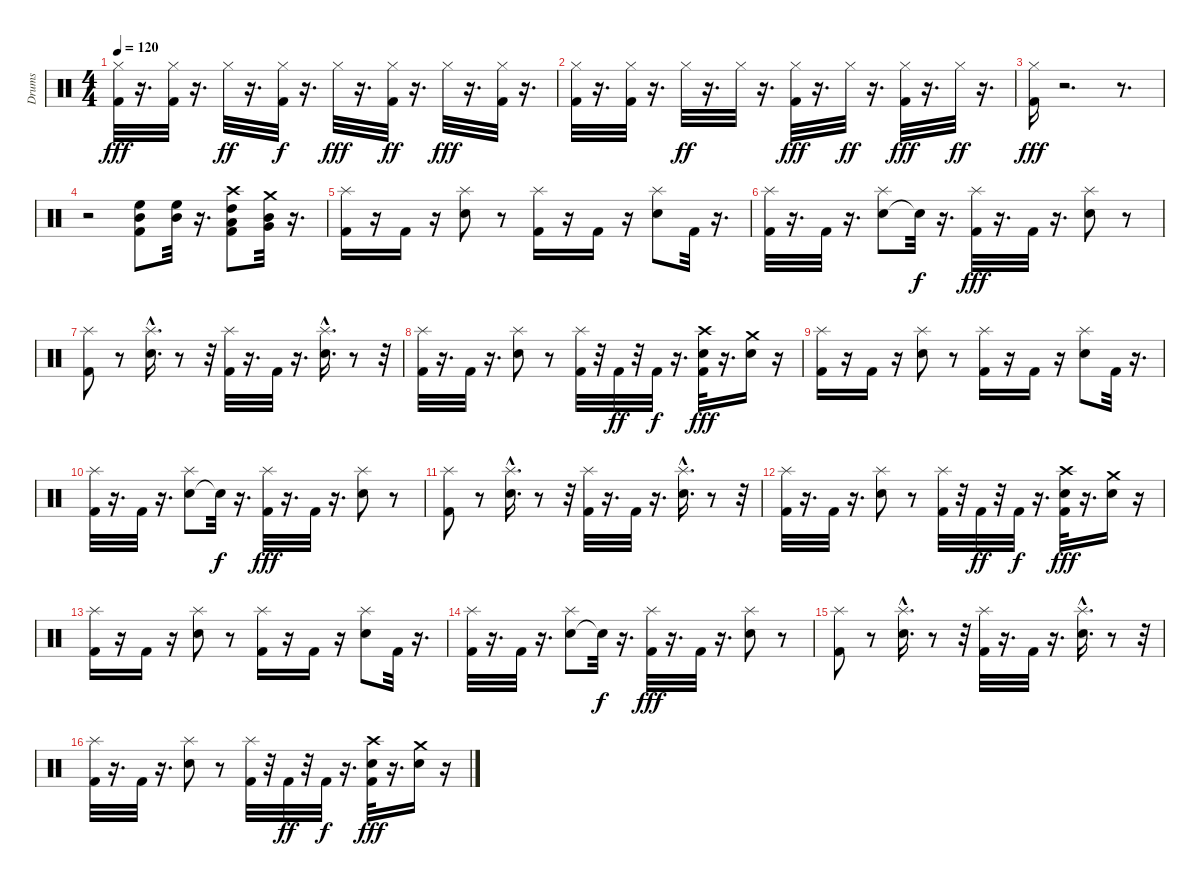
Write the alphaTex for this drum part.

\track ("Drums" "Drums") {instrument percussion}
\staff {score}
\articulation defaults
\ts (4 4)
\tempo 120
\clef neutral
\ks c
("Kick (hit) 2" "Hi-Hat (closed)").32{dy fff} r.16{d} ("Kick (hit) 2" "Hi-Hat (closed)").32 r.16{d} "Hi-Hat (closed)".32{dy ff} r.16{d} ("Kick (hit) 2" "Hi-Hat (closed)").32{dy f} r.16{d} "Hi-Hat (closed)".32{dy fff} r.16{d} ("Kick (hit) 2" "Hi-Hat (closed)").32{dy ff} r.16{d} "Hi-Hat (closed)".32{dy fff} r.16{d} ("Kick (hit) 2" "Hi-Hat (closed)").32 r.16{d} |
("Kick (hit) 2" "Hi-Hat (closed)").32 r.16{d} ("Kick (hit) 2" "Hi-Hat (closed)").32 r.16{d} "Hi-Hat (closed)".32{dy ff} r.16{d} "Hi-Hat (closed)".32 r.16{d} ("Kick (hit) 2" "Hi-Hat (closed)").32{dy fff} r.16{d} "Hi-Hat (closed)".32{dy ff} r.16{d} ("Kick (hit) 2" "Hi-Hat (closed)").32{dy fff} r.16{d} "Hi-Hat (closed)".32{dy ff} r.16{d} |
("Kick (hit) 2" "Hi-Hat (closed)").16{dy fff} r.2{d} r.8{d} |
r.2 ("Mid Tom (hit)" "High Floor Tom (hit)" "Kick (hit) 2").8 ("Mid Tom (hit)" "High Floor Tom (hit)").32 r.16{d} ("Low Tom (hit)" "High Tom (hit)" "Kick (hit) 2" "Crash high (hit)").8 ("Very Low Tom (hit)" "Mid Tom (hit)" "Crash medium (hit)").32 r.16{d} |
("Kick (hit) 2" "Splash (hit)").16 r.16 "Kick (hit) 2".16 r.16 ("Electric Snare (hit)" "Splash (hit)").8 r.8 ("Kick (hit) 2" "Splash (hit)").16 r.16 "Kick (hit) 2".16 r.16 ("Electric Snare (hit)" "Splash (hit)").8 "Kick (hit) 2".32 r.16{d} |
("Kick (hit) 2" "Splash (hit)").32 r.16{d} "Kick (hit) 2".32 r.16{d} ("Electric Snare (hit)" "Splash (hit)").8 "Snare (hit)"{t}.32{dy f} r.16{d} ("Kick (hit) 2" "Splash (hit)").32{dy fff} r.16{d} "Kick (hit) 2".32 r.16{d} ("Electric Snare (hit)" "Splash (hit)").8 r.8 |
("Kick (hit) 2" "Splash (hit)").8 r.8 ("Electric Snare (hit)"{hac} "Splash (hit)").16{d} r.8 r.32 ("Kick (hit) 2" "Splash (hit)").32 r.16{d} "Kick (hit) 2".32 r.16{d} ("Electric Snare (hit)"{hac} "Splash (hit)").16{d} r.8 r.32 |
("Kick (hit) 2" "Splash (hit)").32 r.16{d} "Kick (hit) 2".32 r.16{d} ("Electric Snare (hit)" "Splash (hit)").8 r.8 ("Kick (hit) 2" "Splash (hit)").32 r.32 "Kick (hit) 2".32{dy ff} r.32 "Kick (hit) 2".32{dy f} r.16{d} ("Kick (hit) 2" "Electric Snare (hit)" "Crash high (hit)").32{dy fff} r.16{d} ("Electric Snare (hit)" "Crash medium (hit)").16 r.16 |
("Kick (hit) 2" "Splash (hit)").16 r.16 "Kick (hit) 2".16 r.16 ("Electric Snare (hit)" "Splash (hit)").8 r.8 ("Kick (hit) 2" "Splash (hit)").16 r.16 "Kick (hit) 2".16 r.16 ("Electric Snare (hit)" "Splash (hit)").8 "Kick (hit) 2".32 r.16{d} |
("Kick (hit) 2" "Splash (hit)").32 r.16{d} "Kick (hit) 2".32 r.16{d} ("Electric Snare (hit)" "Splash (hit)").8 "Snare (hit)"{t}.32{dy f} r.16{d} ("Kick (hit) 2" "Splash (hit)").32{dy fff} r.16{d} "Kick (hit) 2".32 r.16{d} ("Electric Snare (hit)" "Splash (hit)").8 r.8 |
("Kick (hit) 2" "Splash (hit)").8 r.8 ("Electric Snare (hit)"{hac} "Splash (hit)").16{d} r.8 r.32 ("Kick (hit) 2" "Splash (hit)").32 r.16{d} "Kick (hit) 2".32 r.16{d} ("Electric Snare (hit)"{hac} "Splash (hit)").16{d} r.8 r.32 |
("Kick (hit) 2" "Splash (hit)").32 r.16{d} "Kick (hit) 2".32 r.16{d} ("Electric Snare (hit)" "Splash (hit)").8 r.8 ("Kick (hit) 2" "Splash (hit)").32 r.32 "Kick (hit) 2".32{dy ff} r.32 "Kick (hit) 2".32{dy f} r.16{d} ("Kick (hit) 2" "Electric Snare (hit)" "Crash high (hit)").32{dy fff} r.16{d} ("Electric Snare (hit)" "Crash medium (hit)").16 r.16 |
("Kick (hit) 2" "Splash (hit)").16 r.16 "Kick (hit) 2".16 r.16 ("Electric Snare (hit)" "Splash (hit)").8 r.8 ("Kick (hit) 2" "Splash (hit)").16 r.16 "Kick (hit) 2".16 r.16 ("Electric Snare (hit)" "Splash (hit)").8 "Kick (hit) 2".32 r.16{d} |
("Kick (hit) 2" "Splash (hit)").32 r.16{d} "Kick (hit) 2".32 r.16{d} ("Electric Snare (hit)" "Splash (hit)").8 "Snare (hit)"{t}.32{dy f} r.16{d} ("Kick (hit) 2" "Splash (hit)").32{dy fff} r.16{d} "Kick (hit) 2".32 r.16{d} ("Electric Snare (hit)" "Splash (hit)").8 r.8 |
("Kick (hit) 2" "Splash (hit)").8 r.8 ("Electric Snare (hit)"{hac} "Splash (hit)").16{d} r.8 r.32 ("Kick (hit) 2" "Splash (hit)").32 r.16{d} "Kick (hit) 2".32 r.16{d} ("Electric Snare (hit)"{hac} "Splash (hit)").16{d} r.8 r.32 |
("Kick (hit) 2" "Splash (hit)").32 r.16{d} "Kick (hit) 2".32 r.16{d} ("Electric Snare (hit)" "Splash (hit)").8 r.8 ("Kick (hit) 2" "Splash (hit)").32 r.32 "Kick (hit) 2".32{dy ff} r.32 "Kick (hit) 2".32{dy f} r.16{d} ("Kick (hit) 2" "Electric Snare (hit)" "Crash high (hit)").32{dy fff} r.16{d} ("Electric Snare (hit)" "Crash medium (hit)").16 r.16
